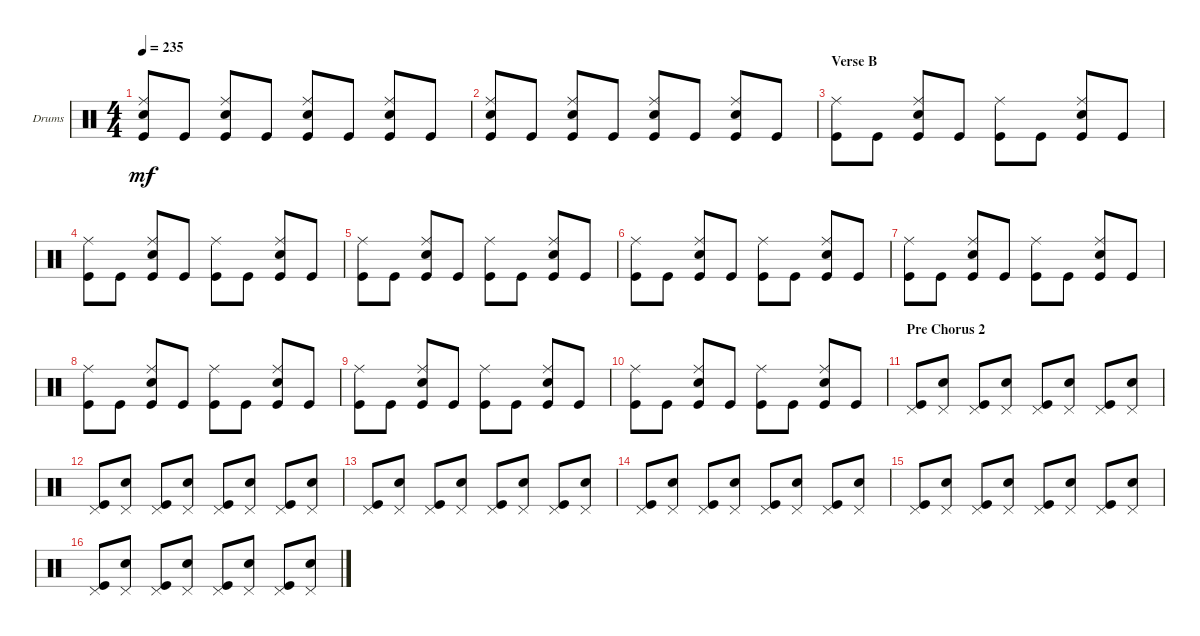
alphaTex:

\defaultSystemsLayout 4
\bracketExtendMode groupsimilarinstruments
\firstSystemTrackNameOrientation horizontal
\otherSystemsTrackNameOrientation horizontal
\track ("Drumkit" "Drums") {instrument percussion}
\staff {score}
\articulation defaults
\ts (4 4)
\tempo 235
\clef neutral
\scale
0.333333
\ks c
("Snare (hit) 2" "Ride (middle)" "Kick (hit)").8{dy mf} "Kick (hit)".8 ("Snare (hit) 2" "Ride (middle)" "Kick (hit)").8 "Kick (hit)".8 ("Snare (hit) 2" "Ride (middle)" "Kick (hit)").8 "Kick (hit)".8 ("Snare (hit) 2" "Ride (middle)" "Kick (hit)").8 "Kick (hit)".8 |
\scale
0.333333 ("Snare (hit) 2" "Ride (middle)" "Kick (hit)").8 "Kick (hit)".8 ("Snare (hit) 2" "Ride (middle)" "Kick (hit)").8 "Kick (hit)".8 ("Snare (hit) 2" "Ride (middle)" "Kick (hit)").8 "Kick (hit)".8 ("Snare (hit) 2" "Ride (middle)" "Kick (hit)").8 "Kick (hit)".8 |
\section ("" "Verse B")
\scale
0.333333 ("Kick (hit)" "Ride (middle)").8 "Kick (hit)".8 ("Kick (hit)" "Ride (middle)" "Snare (hit) 2").8 "Kick (hit)".8 ("Kick (hit)" "Ride (middle)").8 "Kick (hit)".8 ("Kick (hit)" "Ride (middle)" "Snare (hit) 2").8 "Kick (hit)".8 |
\scale
0.333333 ("Kick (hit)" "Ride (middle)").8 "Kick (hit)".8 ("Kick (hit)" "Ride (middle)" "Snare (hit) 2").8 "Kick (hit)".8 ("Kick (hit)" "Ride (middle)").8 "Kick (hit)".8 ("Kick (hit)" "Ride (middle)" "Snare (hit) 2").8 "Kick (hit)".8 |
\scale
0.333333 ("Kick (hit)" "Ride (middle)").8 "Kick (hit)".8 ("Kick (hit)" "Ride (middle)" "Snare (hit) 2").8 "Kick (hit)".8 ("Kick (hit)" "Ride (middle)").8 "Kick (hit)".8 ("Kick (hit)" "Ride (middle)" "Snare (hit) 2").8 "Kick (hit)".8 |
\scale
0.333333 ("Kick (hit)" "Ride (middle)").8 "Kick (hit)".8 ("Kick (hit)" "Ride (middle)" "Snare (hit) 2").8 "Kick (hit)".8 ("Kick (hit)" "Ride (middle)").8 "Kick (hit)".8 ("Kick (hit)" "Ride (middle)" "Snare (hit) 2").8 "Kick (hit)".8 |
\scale
0.333333 ("Kick (hit)" "Ride (middle)").8 "Kick (hit)".8 ("Kick (hit)" "Ride (middle)" "Snare (hit) 2").8 "Kick (hit)".8 ("Kick (hit)" "Ride (middle)").8 "Kick (hit)".8 ("Kick (hit)" "Ride (middle)" "Snare (hit) 2").8 "Kick (hit)".8 |
\scale
0.333333 ("Kick (hit)" "Ride (middle)").8 "Kick (hit)".8 ("Kick (hit)" "Ride (middle)" "Snare (hit) 2").8 "Kick (hit)".8 ("Kick (hit)" "Ride (middle)").8 "Kick (hit)".8 ("Kick (hit)" "Ride (middle)" "Snare (hit) 2").8 "Kick (hit)".8 |
\scale
0.333333 ("Kick (hit)" "Ride (middle)").8 "Kick (hit)".8 ("Kick (hit)" "Ride (middle)" "Snare (hit) 2").8 "Kick (hit)".8 ("Kick (hit)" "Ride (middle)").8 "Kick (hit)".8 ("Kick (hit)" "Ride (middle)" "Snare (hit) 2").8 "Kick (hit)".8 |
\scale
0.333333 ("Kick (hit)" "Ride (middle)").8 "Kick (hit)".8 ("Kick (hit)" "Ride (middle)" "Snare (hit) 2").8 "Kick (hit)".8 ("Kick (hit)" "Ride (middle)").8 "Kick (hit)".8 ("Kick (hit)" "Ride (middle)" "Snare (hit) 2").8 "Kick (hit)".8 |
\section ("" "Pre Chorus 2")
\scale
0.333333 ("Kick (hit)" "Pedal Hi-Hat (hit)").8 ("Snare (hit) 2" "Pedal Hi-Hat (hit)").8 ("Kick (hit)" "Pedal Hi-Hat (hit)").8 ("Snare (hit) 2" "Pedal Hi-Hat (hit)").8 ("Kick (hit)" "Pedal Hi-Hat (hit)").8 ("Snare (hit) 2" "Pedal Hi-Hat (hit)").8 ("Kick (hit)" "Pedal Hi-Hat (hit)").8 ("Snare (hit) 2" "Pedal Hi-Hat (hit)").8 |
\scale
0.333333 ("Kick (hit)" "Pedal Hi-Hat (hit)").8 ("Snare (hit) 2" "Pedal Hi-Hat (hit)").8 ("Kick (hit)" "Pedal Hi-Hat (hit)").8 ("Snare (hit) 2" "Pedal Hi-Hat (hit)").8 ("Kick (hit)" "Pedal Hi-Hat (hit)").8 ("Snare (hit) 2" "Pedal Hi-Hat (hit)").8 ("Kick (hit)" "Pedal Hi-Hat (hit)").8 ("Snare (hit) 2" "Pedal Hi-Hat (hit)").8 |
\scale
0.333333 ("Kick (hit)" "Pedal Hi-Hat (hit)").8 ("Snare (hit) 2" "Pedal Hi-Hat (hit)").8 ("Kick (hit)" "Pedal Hi-Hat (hit)").8 ("Snare (hit) 2" "Pedal Hi-Hat (hit)").8 ("Kick (hit)" "Pedal Hi-Hat (hit)").8 ("Snare (hit) 2" "Pedal Hi-Hat (hit)").8 ("Kick (hit)" "Pedal Hi-Hat (hit)").8 ("Snare (hit) 2" "Pedal Hi-Hat (hit)").8 |
\scale
0.333333 ("Kick (hit)" "Pedal Hi-Hat (hit)").8 ("Snare (hit) 2" "Pedal Hi-Hat (hit)").8 ("Kick (hit)" "Pedal Hi-Hat (hit)").8 ("Snare (hit) 2" "Pedal Hi-Hat (hit)").8 ("Kick (hit)" "Pedal Hi-Hat (hit)").8 ("Snare (hit) 2" "Pedal Hi-Hat (hit)").8 ("Kick (hit)" "Pedal Hi-Hat (hit)").8 ("Snare (hit) 2" "Pedal Hi-Hat (hit)").8 |
\scale
0.333333 ("Kick (hit)" "Pedal Hi-Hat (hit)").8 ("Snare (hit) 2" "Pedal Hi-Hat (hit)").8 ("Kick (hit)" "Pedal Hi-Hat (hit)").8 ("Snare (hit) 2" "Pedal Hi-Hat (hit)").8 ("Kick (hit)" "Pedal Hi-Hat (hit)").8 ("Snare (hit) 2" "Pedal Hi-Hat (hit)").8 ("Kick (hit)" "Pedal Hi-Hat (hit)").8 ("Snare (hit) 2" "Pedal Hi-Hat (hit)").8 |
\scale
0.333333 ("Kick (hit)" "Pedal Hi-Hat (hit)").8 ("Snare (hit) 2" "Pedal Hi-Hat (hit)").8 ("Kick (hit)" "Pedal Hi-Hat (hit)").8 ("Snare (hit) 2" "Pedal Hi-Hat (hit)").8 ("Kick (hit)" "Pedal Hi-Hat (hit)").8 ("Snare (hit) 2" "Pedal Hi-Hat (hit)").8 ("Kick (hit)" "Pedal Hi-Hat (hit)").8 ("Snare (hit) 2" "Pedal Hi-Hat (hit)").8
